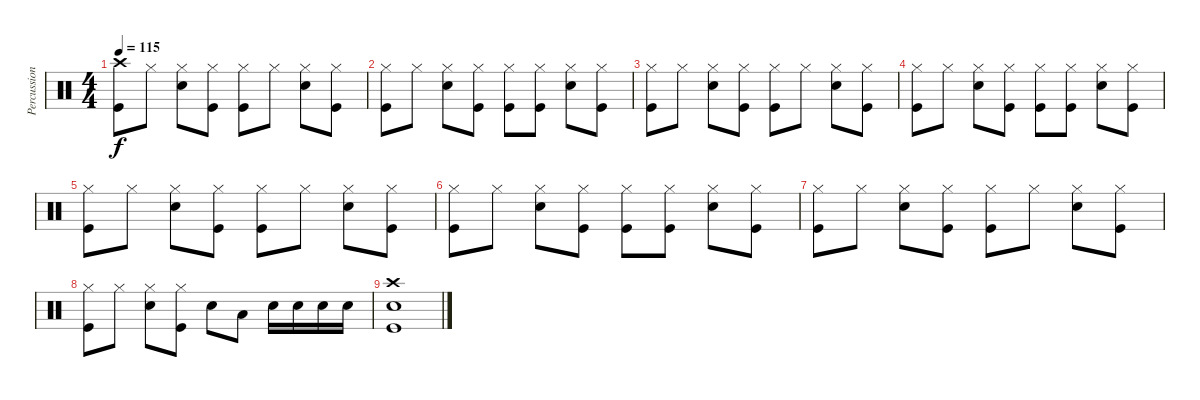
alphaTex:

\track ("Percussion" "Percussion") {instrument percussion}
\staff {score}
\articulation defaults
\ts (4 4)
\tempo 115
\clef neutral
\ks c
("Crash high (hit)" "Kick (hit)").8{dy f} "Hi-Hat (closed)".8 ("Hi-Hat (closed)" "Electric Snare (hit)").8 ("Hi-Hat (closed)" "Kick (hit)").8 ("Hi-Hat (closed)" "Kick (hit)").8 "Hi-Hat (closed)".8 ("Hi-Hat (closed)" "Electric Snare (hit)").8 ("Hi-Hat (closed)" "Kick (hit)").8 |
("Hi-Hat (closed)" "Kick (hit)").8 "Hi-Hat (closed)".8 ("Hi-Hat (closed)" "Electric Snare (hit)").8 ("Hi-Hat (closed)" "Kick (hit)").8 ("Hi-Hat (closed)" "Kick (hit)").8 ("Hi-Hat (closed)" "Kick (hit)").8 ("Hi-Hat (closed)" "Electric Snare (hit)").8 ("Hi-Hat (closed)" "Kick (hit)").8 |
("Hi-Hat (closed)" "Kick (hit)").8 "Hi-Hat (closed)".8 ("Hi-Hat (closed)" "Electric Snare (hit)").8 ("Hi-Hat (closed)" "Kick (hit)").8 ("Hi-Hat (closed)" "Kick (hit)").8 "Hi-Hat (closed)".8 ("Hi-Hat (closed)" "Electric Snare (hit)").8 ("Hi-Hat (closed)" "Kick (hit)").8 |
("Hi-Hat (closed)" "Kick (hit)").8 "Hi-Hat (closed)".8 ("Hi-Hat (closed)" "Electric Snare (hit)").8 ("Hi-Hat (closed)" "Kick (hit)").8 ("Hi-Hat (closed)" "Kick (hit)").8 ("Hi-Hat (closed)" "Kick (hit)").8 ("Hi-Hat (closed)" "Electric Snare (hit)").8 ("Hi-Hat (closed)" "Kick (hit)").8 |
("Hi-Hat (closed)" "Kick (hit)").8 "Hi-Hat (closed)".8 ("Hi-Hat (closed)" "Electric Snare (hit)").8 ("Hi-Hat (closed)" "Kick (hit)").8 ("Hi-Hat (closed)" "Kick (hit)").8 "Hi-Hat (closed)".8 ("Hi-Hat (closed)" "Electric Snare (hit)").8 ("Hi-Hat (closed)" "Kick (hit)").8 |
("Hi-Hat (closed)" "Kick (hit)").8 "Hi-Hat (closed)".8 ("Hi-Hat (closed)" "Electric Snare (hit)").8 ("Hi-Hat (closed)" "Kick (hit)").8 ("Hi-Hat (closed)" "Kick (hit)").8 ("Hi-Hat (closed)" "Kick (hit)").8 ("Hi-Hat (closed)" "Electric Snare (hit)").8 ("Hi-Hat (closed)" "Kick (hit)").8 |
("Hi-Hat (closed)" "Kick (hit)").8 "Hi-Hat (closed)".8 ("Hi-Hat (closed)" "Electric Snare (hit)").8 ("Hi-Hat (closed)" "Kick (hit)").8 ("Hi-Hat (closed)" "Kick (hit)").8 "Hi-Hat (closed)".8 ("Hi-Hat (closed)" "Electric Snare (hit)").8 ("Hi-Hat (closed)" "Kick (hit)").8 |
("Hi-Hat (closed)" "Kick (hit)").8 "Hi-Hat (closed)".8 ("Hi-Hat (closed)" "Electric Snare (hit)").8 ("Hi-Hat (closed)" "Kick (hit)").8 "Electric Snare (hit)".8 "Low Tom (hit)".8 "Electric Snare (hit)".16 "Electric Snare (hit)".16 "Electric Snare (hit)".16 "Electric Snare (hit)".16 |
("Crash high (hit)" "Electric Snare (hit)" "Kick (hit)").1{volume 0}
